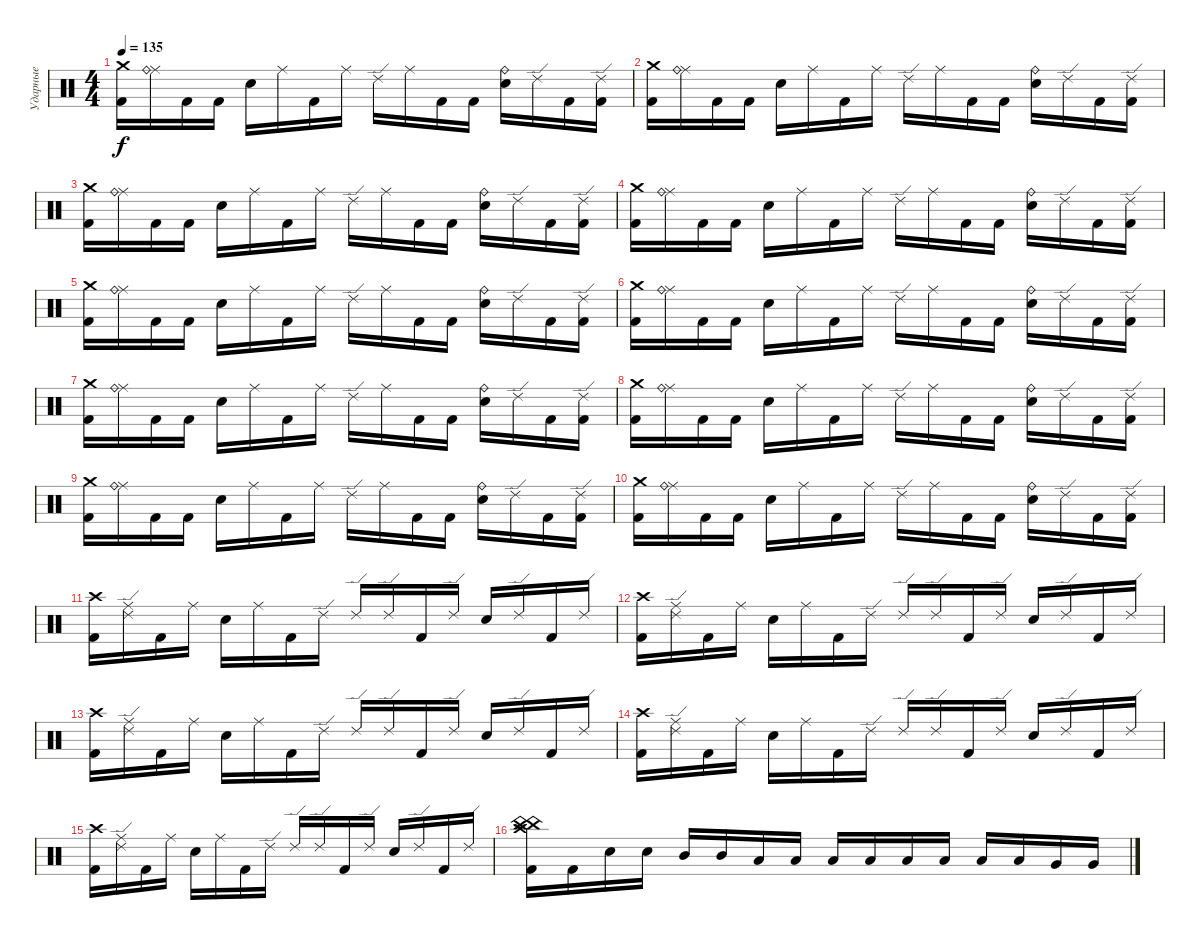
\track ("Ударные" "Ударные") {instrument percussion}
\staff {score}
\articulation defaults
\ts (4 4)
\tempo 135
\clef neutral
\ks c
("Kick (hit) 2" "Crash medium (hit)").16{dy f} ("Ride (middle)" "Ride (bell)").16 "Kick (hit) 2".16 "Kick (hit) 2".16 "Snare (hit) 2".16 "Ride (middle)".16 "Kick (hit) 2".16 "Ride (middle)".16 "Ride (edge) 2".16 "Ride (middle)".16 "Kick (hit) 2".16 "Kick (hit) 2".16 ("Snare (hit) 2" "Ride (bell)").16 "Ride (edge) 2".16 "Kick (hit) 2".16 ("Ride (edge) 2" "Kick (hit) 2").16 |
("Kick (hit) 2" "Crash medium (hit)").16 ("Ride (middle)" "Ride (bell)").16 "Kick (hit) 2".16 "Kick (hit) 2".16 "Snare (hit) 2".16 "Ride (middle)".16 "Kick (hit) 2".16 "Ride (middle)".16 "Ride (edge) 2".16 "Ride (middle)".16 "Kick (hit) 2".16 "Kick (hit) 2".16 ("Snare (hit) 2" "Ride (bell)").16 "Ride (edge) 2".16 "Kick (hit) 2".16 ("Ride (edge) 2" "Kick (hit) 2").16 |
("Kick (hit) 2" "Crash medium (hit)").16 ("Ride (middle)" "Ride (bell)").16 "Kick (hit) 2".16 "Kick (hit) 2".16 "Snare (hit) 2".16 "Ride (middle)".16 "Kick (hit) 2".16 "Ride (middle)".16 "Ride (edge) 2".16 "Ride (middle)".16 "Kick (hit) 2".16 "Kick (hit) 2".16 ("Snare (hit) 2" "Ride (bell)").16 "Ride (edge) 2".16 "Kick (hit) 2".16 ("Ride (edge) 2" "Kick (hit) 2").16 |
("Kick (hit) 2" "Crash medium (hit)").16 ("Ride (middle)" "Ride (bell)").16 "Kick (hit) 2".16 "Kick (hit) 2".16 "Snare (hit) 2".16 "Ride (middle)".16 "Kick (hit) 2".16 "Ride (middle)".16 "Ride (edge) 2".16 "Ride (middle)".16 "Kick (hit) 2".16 "Kick (hit) 2".16 ("Snare (hit) 2" "Ride (bell)").16 "Ride (edge) 2".16 "Kick (hit) 2".16 ("Ride (edge) 2" "Kick (hit) 2").16 |
("Kick (hit) 2" "Crash medium (hit)").16 ("Ride (middle)" "Ride (bell)").16 "Kick (hit) 2".16 "Kick (hit) 2".16 "Snare (hit) 2".16 "Ride (middle)".16 "Kick (hit) 2".16 "Ride (middle)".16 "Ride (edge) 2".16 "Ride (middle)".16 "Kick (hit) 2".16 "Kick (hit) 2".16 ("Snare (hit) 2" "Ride (bell)").16 "Ride (edge) 2".16 "Kick (hit) 2".16 ("Ride (edge) 2" "Kick (hit) 2").16 |
("Kick (hit) 2" "Crash medium (hit)").16 ("Ride (middle)" "Ride (bell)").16 "Kick (hit) 2".16 "Kick (hit) 2".16 "Snare (hit) 2".16 "Ride (middle)".16 "Kick (hit) 2".16 "Ride (middle)".16 "Ride (edge) 2".16 "Ride (middle)".16 "Kick (hit) 2".16 "Kick (hit) 2".16 ("Snare (hit) 2" "Ride (bell)").16 "Ride (edge) 2".16 "Kick (hit) 2".16 ("Ride (edge) 2" "Kick (hit) 2").16 |
("Kick (hit) 2" "Crash medium (hit)").16 ("Ride (middle)" "Ride (bell)").16 "Kick (hit) 2".16 "Kick (hit) 2".16 "Snare (hit) 2".16 "Ride (middle)".16 "Kick (hit) 2".16 "Ride (middle)".16 "Ride (edge) 2".16 "Ride (middle)".16 "Kick (hit) 2".16 "Kick (hit) 2".16 ("Snare (hit) 2" "Ride (bell)").16 "Ride (edge) 2".16 "Kick (hit) 2".16 ("Ride (edge) 2" "Kick (hit) 2").16 |
("Kick (hit) 2" "Crash medium (hit)").16 ("Ride (middle)" "Ride (bell)").16 "Kick (hit) 2".16 "Kick (hit) 2".16 "Snare (hit) 2".16 "Ride (middle)".16 "Kick (hit) 2".16 "Ride (middle)".16 "Ride (edge) 2".16 "Ride (middle)".16 "Kick (hit) 2".16 "Kick (hit) 2".16 ("Snare (hit) 2" "Ride (bell)").16 "Ride (edge) 2".16 "Kick (hit) 2".16 ("Ride (edge) 2" "Kick (hit) 2").16 |
("Kick (hit) 2" "Crash medium (hit)").16 ("Ride (middle)" "Ride (bell)").16 "Kick (hit) 2".16 "Kick (hit) 2".16 "Snare (hit) 2".16 "Ride (middle)".16 "Kick (hit) 2".16 "Ride (middle)".16 "Ride (edge) 2".16 "Ride (middle)".16 "Kick (hit) 2".16 "Kick (hit) 2".16 ("Snare (hit) 2" "Ride (bell)").16 "Ride (edge) 2".16 "Kick (hit) 2".16 ("Ride (edge) 2" "Kick (hit) 2").16 |
("Kick (hit) 2" "Crash medium (hit)").16 ("Ride (middle)" "Ride (bell)").16 "Kick (hit) 2".16 "Kick (hit) 2".16 "Snare (hit) 2".16 "Ride (middle)".16 "Kick (hit) 2".16 "Ride (middle)".16 "Ride (edge) 2".16 "Ride (middle)".16 "Kick (hit) 2".16 "Kick (hit) 2".16 ("Snare (hit) 2" "Ride (bell)").16 "Ride (edge) 2".16 "Kick (hit) 2".16 ("Ride (edge) 2" "Kick (hit) 2").16 |
("Crash high (hit)" "Kick (hit) 2").16 ("Ride (edge) 2" "Ride (middle)").16 "Kick (hit) 2".16 "Ride (middle)".16 "Snare (hit) 2".16 "Ride (middle)".16 "Kick (hit) 2".16 "Ride (edge) 2".16 "Ride (edge) 2".16 "Ride (edge) 2".16 "Kick (hit) 2".16 "Ride (edge) 2".16 "Snare (hit) 2".16 "Ride (edge) 2".16 "Kick (hit) 2".16 "Ride (edge) 2".16 |
("Crash high (hit)" "Kick (hit) 2").16 ("Ride (edge) 2" "Ride (middle)").16 "Kick (hit) 2".16 "Ride (middle)".16 "Snare (hit) 2".16 "Ride (middle)".16 "Kick (hit) 2".16 "Ride (edge) 2".16 "Ride (edge) 2".16 "Ride (edge) 2".16 "Kick (hit) 2".16 "Ride (edge) 2".16 "Snare (hit) 2".16 "Ride (edge) 2".16 "Kick (hit) 2".16 "Ride (edge) 2".16 |
("Crash high (hit)" "Kick (hit) 2").16 ("Ride (edge) 2" "Ride (middle)").16 "Kick (hit) 2".16 "Ride (middle)".16 "Snare (hit) 2".16 "Ride (middle)".16 "Kick (hit) 2".16 "Ride (edge) 2".16 "Ride (edge) 2".16 "Ride (edge) 2".16 "Kick (hit) 2".16 "Ride (edge) 2".16 "Snare (hit) 2".16 "Ride (edge) 2".16 "Kick (hit) 2".16 "Ride (edge) 2".16 |
("Crash high (hit)" "Kick (hit) 2").16 ("Ride (edge) 2" "Ride (middle)").16 "Kick (hit) 2".16 "Ride (middle)".16 "Snare (hit) 2".16 "Ride (middle)".16 "Kick (hit) 2".16 "Ride (edge) 2".16 "Ride (edge) 2".16 "Ride (edge) 2".16 "Kick (hit) 2".16 "Ride (edge) 2".16 "Snare (hit) 2".16 "Ride (edge) 2".16 "Kick (hit) 2".16 "Ride (edge) 2".16 |
("Crash high (hit)" "Kick (hit) 2").16 ("Ride (edge) 2" "Ride (middle)").16 "Kick (hit) 2".16 "Ride (middle)".16 "Snare (hit) 2".16 "Ride (middle)".16 "Kick (hit) 2".16 "Ride (edge) 2".16 "Ride (edge) 2".16 "Ride (edge) 2".16 "Kick (hit) 2".16 "Ride (edge) 2".16 "Snare (hit) 2".16 "Ride (edge) 2".16 "Kick (hit) 2".16 "Ride (edge) 2".16 |
("Kick (hit) 2" "China (hit)" "Crash high (hit)" "China (hit)").16 "Kick (hit) 2".16 "Snare (hit) 2".16 "Snare (hit) 2".16 "Mid Tom (hit)".16 "Mid Tom (hit)".16 "Low Tom (hit)".16 "Low Tom (hit)".16 "Low Floor Tom (hit)".16 "Low Floor Tom (hit)".16 "Low Tom (hit)".16 "Low Tom (hit)".16 "Low Floor Tom (hit)".16 "Low Floor Tom (hit)".16 "Very Low Tom (hit)".16 "Very Low Tom (hit)".16
